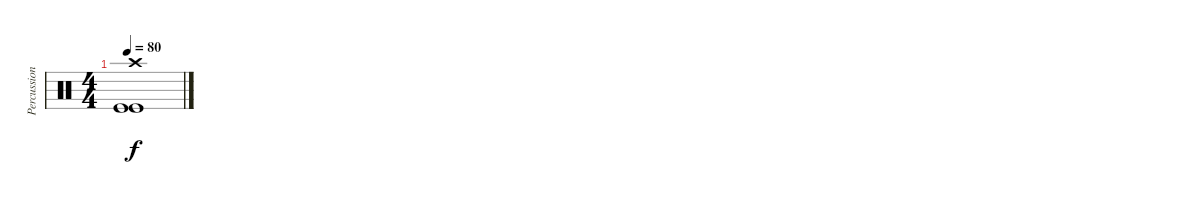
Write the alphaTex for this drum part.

\track ("Percussions" "Percussion") {instrument percussion}
\staff {score}
\articulation defaults
\ts (4 4)
\tempo 80
\clef neutral
\ks c
("Kick (hit)" "Kick (hit)" "Crash high (hit)").1{dy f}
